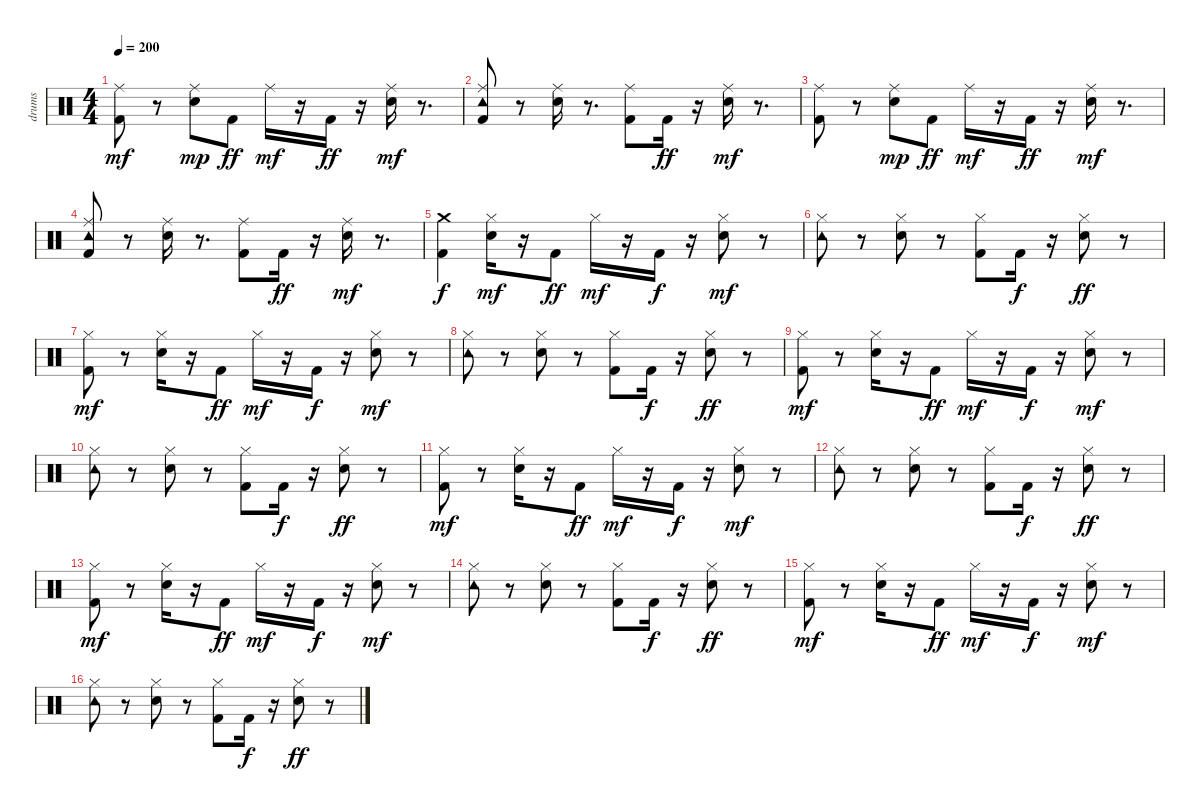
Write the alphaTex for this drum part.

\track ("drums" "drums") {instrument percussion}
\staff {score}
\articulation defaults
\ts (4 4)
\tempo 200
\clef neutral
\ks c
("Kick (hit) 2" "Ride (middle)").8{dy mf} r.8 ("Snare (hit) 2" "Ride (middle)").8{dy mp} "Kick (hit) 2".8{dy ff} "Ride (middle)".16{dy mf} r.16 "Kick (hit) 2".16{dy ff} r.16 ("Snare (hit) 2" "Ride (middle)").16{dy mf} r.8{d} |
("Tambourine (hit)" "Kick (hit) 2" "Ride (middle)").8 r.8 ("Snare (hit) 2" "Ride (middle)").16 r.8{d} ("Kick (hit) 2" "Ride (middle)").8 "Kick (hit) 2".16{dy ff} r.16 ("Snare (hit) 2" "Ride (middle)").16{dy mf} r.8{d} |
("Kick (hit) 2" "Ride (middle)").8 r.8 ("Snare (hit) 2" "Ride (middle)").8{dy mp} "Kick (hit) 2".8{dy ff} "Ride (middle)".16{dy mf} r.16 "Kick (hit) 2".16{dy ff} r.16 ("Snare (hit) 2" "Ride (middle)").16{dy mf} r.8{d} |
("Tambourine (hit)" "Kick (hit) 2" "Ride (middle)").8 r.8 ("Snare (hit) 2" "Ride (middle)").16 r.8{d} ("Kick (hit) 2" "Ride (middle)").8 "Kick (hit) 2".16{dy ff} r.16 ("Snare (hit) 2" "Ride (middle)").16{dy mf} r.8{d} |
("Kick (hit) 2" "Crash medium (hit)").4{dy f} ("Snare (hit) 2" "Hi-Hat (closed)").16{dy mf} r.16 "Kick (hit) 2".8{dy ff} "Hi-Hat (closed)".16{dy mf} r.16 "Kick (hit) 2".16{dy f} r.16 ("Snare (hit) 2" "Hi-Hat (closed)").8{dy mf} r.8 |
("Tambourine (hit)" "Hi-Hat (closed)").8 r.8 ("Snare (hit) 2" "Hi-Hat (closed)").8 r.8 ("Kick (hit) 2" "Hi-Hat (closed)").8 "Kick (hit) 2".16{dy f} r.16 ("Snare (hit) 2" "Hi-Hat (closed)").8{dy ff} r.8 |
("Kick (hit) 2" "Hi-Hat (closed)").8{dy mf} r.8 ("Snare (hit) 2" "Hi-Hat (closed)").16 r.16 "Kick (hit) 2".8{dy ff} "Hi-Hat (closed)".16{dy mf} r.16 "Kick (hit) 2".16{dy f} r.16 ("Snare (hit) 2" "Hi-Hat (closed)").8{dy mf} r.8 |
("Tambourine (hit)" "Hi-Hat (closed)").8 r.8 ("Snare (hit) 2" "Hi-Hat (closed)").8 r.8 ("Kick (hit) 2" "Hi-Hat (closed)").8 "Kick (hit) 2".16{dy f} r.16 ("Snare (hit) 2" "Hi-Hat (closed)").8{dy ff} r.8 |
("Kick (hit) 2" "Hi-Hat (closed)").8{dy mf} r.8 ("Snare (hit) 2" "Hi-Hat (closed)").16 r.16 "Kick (hit) 2".8{dy ff} "Hi-Hat (closed)".16{dy mf} r.16 "Kick (hit) 2".16{dy f} r.16 ("Snare (hit) 2" "Hi-Hat (closed)").8{dy mf} r.8 |
("Tambourine (hit)" "Hi-Hat (closed)").8 r.8 ("Snare (hit) 2" "Hi-Hat (closed)").8 r.8 ("Kick (hit) 2" "Hi-Hat (closed)").8 "Kick (hit) 2".16{dy f} r.16 ("Snare (hit) 2" "Hi-Hat (closed)").8{dy ff} r.8 |
("Kick (hit) 2" "Hi-Hat (closed)").8{dy mf} r.8 ("Snare (hit) 2" "Hi-Hat (closed)").16 r.16 "Kick (hit) 2".8{dy ff} "Hi-Hat (closed)".16{dy mf} r.16 "Kick (hit) 2".16{dy f} r.16 ("Snare (hit) 2" "Hi-Hat (closed)").8{dy mf} r.8 |
("Tambourine (hit)" "Hi-Hat (closed)").8 r.8 ("Snare (hit) 2" "Hi-Hat (closed)").8 r.8 ("Kick (hit) 2" "Hi-Hat (closed)").8 "Kick (hit) 2".16{dy f} r.16 ("Snare (hit) 2" "Hi-Hat (closed)").8{dy ff} r.8 |
("Kick (hit) 2" "Hi-Hat (closed)").8{dy mf} r.8 ("Snare (hit) 2" "Hi-Hat (closed)").16 r.16 "Kick (hit) 2".8{dy ff} "Hi-Hat (closed)".16{dy mf} r.16 "Kick (hit) 2".16{dy f} r.16 ("Snare (hit) 2" "Hi-Hat (closed)").8{dy mf} r.8 |
("Tambourine (hit)" "Hi-Hat (closed)").8 r.8 ("Snare (hit) 2" "Hi-Hat (closed)").8 r.8 ("Kick (hit) 2" "Hi-Hat (closed)").8 "Kick (hit) 2".16{dy f} r.16 ("Snare (hit) 2" "Hi-Hat (closed)").8{dy ff} r.8 |
("Kick (hit) 2" "Hi-Hat (closed)").8{dy mf} r.8 ("Snare (hit) 2" "Hi-Hat (closed)").16 r.16 "Kick (hit) 2".8{dy ff} "Hi-Hat (closed)".16{dy mf} r.16 "Kick (hit) 2".16{dy f} r.16 ("Snare (hit) 2" "Hi-Hat (closed)").8{dy mf} r.8 |
("Tambourine (hit)" "Hi-Hat (closed)").8 r.8 ("Snare (hit) 2" "Hi-Hat (closed)").8 r.8 ("Kick (hit) 2" "Hi-Hat (closed)").8 "Kick (hit) 2".16{dy f} r.16 ("Snare (hit) 2" "Hi-Hat (closed)").8{dy ff} r.8
